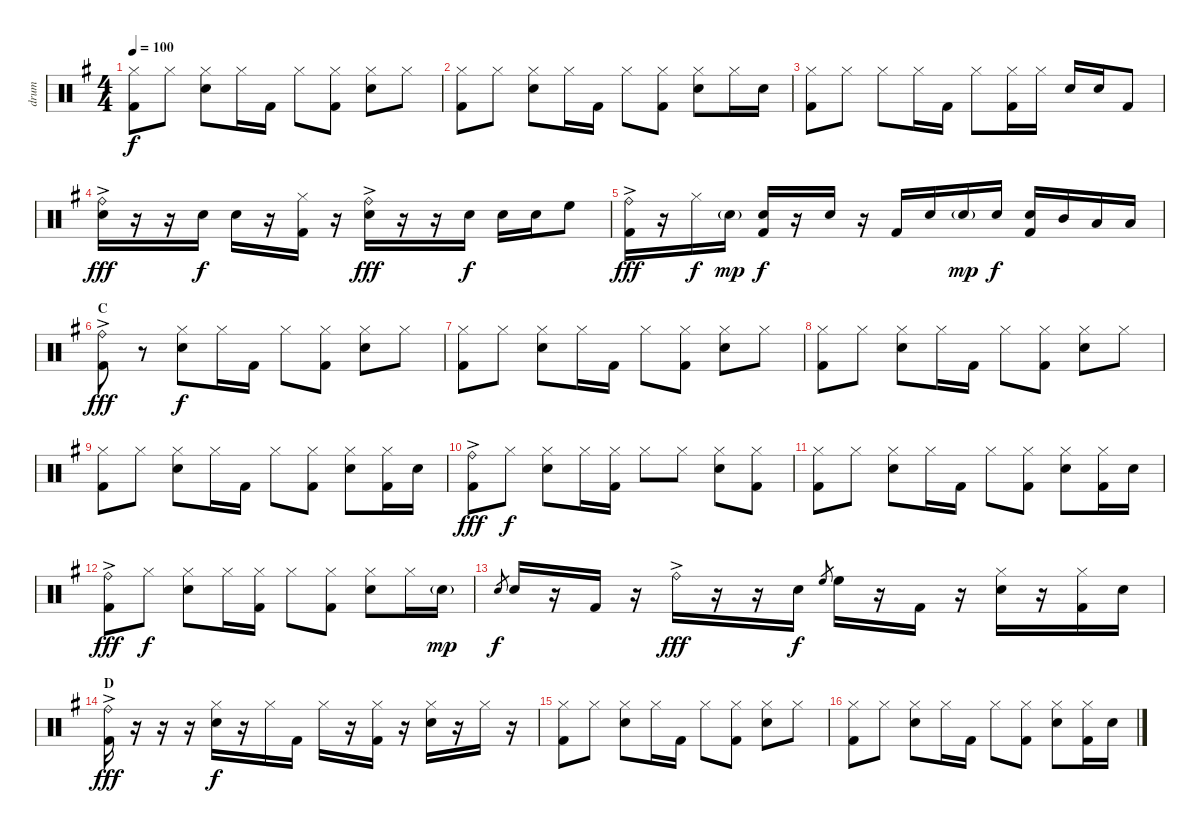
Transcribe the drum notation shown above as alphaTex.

\track ("drum" "drum") {instrument percussion}
\staff {score}
\articulation defaults
\ts (4 4)
\tempo 100
\clef neutral
\ks g
("Hi-Hat (closed)" "Kick (hit) 2").8{dy f} "Hi-Hat (closed)".8 ("Hi-Hat (closed)" "Snare (hit) 2").8 "Hi-Hat (closed)".16 "Kick (hit) 2".16 "Hi-Hat (closed)".8 ("Hi-Hat (closed)" "Kick (hit) 2").8 ("Hi-Hat (closed)" "Snare (hit) 2").8 "Hi-Hat (closed)".8 |
("Hi-Hat (closed)" "Kick (hit) 2").8 "Hi-Hat (closed)".8 ("Hi-Hat (closed)" "Snare (hit) 2").8 "Hi-Hat (closed)".16 "Kick (hit) 2".16 "Hi-Hat (closed)".8 ("Hi-Hat (closed)" "Kick (hit) 2").8 ("Hi-Hat (closed)" "Snare (hit) 2").8 "Hi-Hat (closed)".16 "Snare (hit) 2".16 |
("Hi-Hat (closed)" "Kick (hit) 2").8 "Hi-Hat (closed)".8 "Hi-Hat (closed)".8 "Hi-Hat (closed)".16 "Kick (hit) 2".16 "Hi-Hat (closed)".8 ("Hi-Hat (closed)" "Kick (hit) 2").16 "Hi-Hat (closed)".16 "Snare (hit) 2".16 "Snare (hit) 2".16 "Kick (hit) 2".8 |
("Ride (bell)"{ac} "Snare (hit) 2").16{dy fff} r.16 r.16 "Snare (hit) 2".16{dy f} "Snare (hit) 2".16 r.16 ("Hi-Hat (closed)" "Kick (hit) 2").16 r.16 ("Ride (bell)"{ac} "Snare (hit) 2").16{dy fff} r.16 r.16 "Snare (hit) 2".16{dy f} "Snare (hit) 2".16 "Snare (hit) 2".16 "High Floor Tom (hit)".8 |
("Ride (bell)"{ac} "Kick (hit) 2").16{dy fff} r.16 "Hi-Hat (closed)".16{dy f} "Snare (hit) 2"{g}.16{dy mp} ("Snare (hit) 2" "Kick (hit) 2").16{dy f} r.16 "Snare (hit) 2".16 r.16 "Kick (hit) 2".16 "Snare (hit) 2".16 "Snare (hit) 2"{g}.16{dy mp} "Snare (hit) 2".16{dy f} ("Snare (hit) 2" "Kick (hit) 2").16 "Mid Tom (hit)".16 "Low Tom (hit)".16 "Low Tom (hit)".16 |
\section ("" "C")
("Ride (bell)"{ac} "Kick (hit) 2").8{dy fff} r.8 ("Hi-Hat (closed)" "Snare (hit) 2").8{dy f} "Hi-Hat (closed)".16 "Kick (hit) 2".16 "Hi-Hat (closed)".8 ("Hi-Hat (closed)" "Kick (hit) 2").8 ("Hi-Hat (closed)" "Snare (hit) 2").8 "Hi-Hat (closed)".8 |
("Hi-Hat (closed)" "Kick (hit) 2").8 "Hi-Hat (closed)".8 ("Hi-Hat (closed)" "Snare (hit) 2").8 "Hi-Hat (closed)".16 "Kick (hit) 2".16 "Hi-Hat (closed)".8 ("Hi-Hat (closed)" "Kick (hit) 2").8 ("Hi-Hat (closed)" "Snare (hit) 2").8 "Hi-Hat (closed)".8 |
("Hi-Hat (closed)" "Kick (hit) 2").8 "Hi-Hat (closed)".8 ("Hi-Hat (closed)" "Snare (hit) 2").8 "Hi-Hat (closed)".16 "Kick (hit) 2".16 "Hi-Hat (closed)".8 ("Hi-Hat (closed)" "Kick (hit) 2").8 ("Hi-Hat (closed)" "Snare (hit) 2").8 "Hi-Hat (closed)".8 |
("Hi-Hat (closed)" "Kick (hit) 2").8 "Hi-Hat (closed)".8 ("Hi-Hat (closed)" "Snare (hit) 2").8 "Hi-Hat (closed)".16 "Kick (hit) 2".16 "Hi-Hat (closed)".8 ("Hi-Hat (closed)" "Kick (hit) 2").8 ("Hi-Hat (closed)" "Snare (hit) 2").8 ("Hi-Hat (closed)" "Kick (hit) 2").16 "Snare (hit) 2".16 |
("Ride (bell)"{ac} "Kick (hit) 2").8{dy fff} "Hi-Hat (closed)".8{dy f} ("Hi-Hat (closed)" "Snare (hit) 2").8 "Hi-Hat (closed)".16 ("Hi-Hat (closed)" "Kick (hit) 2").16 "Hi-Hat (closed)".8 "Hi-Hat (closed)".8 ("Hi-Hat (closed)" "Snare (hit) 2").8 ("Hi-Hat (closed)" "Kick (hit) 2").8 |
("Hi-Hat (closed)" "Kick (hit) 2").8 "Hi-Hat (closed)".8 ("Hi-Hat (closed)" "Snare (hit) 2").8 "Hi-Hat (closed)".16 "Kick (hit) 2".16 "Hi-Hat (closed)".8 ("Hi-Hat (closed)" "Kick (hit) 2").8 ("Hi-Hat (closed)" "Snare (hit) 2").8 ("Hi-Hat (closed)" "Kick (hit) 2").16 "Snare (hit) 2".16 |
("Ride (bell)"{ac} "Kick (hit) 2").8{dy fff} "Hi-Hat (closed)".8{dy f} ("Hi-Hat (closed)" "Snare (hit) 2").8 "Hi-Hat (closed)".16 ("Hi-Hat (closed)" "Kick (hit) 2").16 "Hi-Hat (closed)".8 ("Hi-Hat (closed)" "Kick (hit) 2").8 ("Hi-Hat (closed)" "Snare (hit) 2").8 "Hi-Hat (closed)".16 "Snare (hit) 2"{g}.16{dy mp} |
"Snare (hit) 2".8{gr dy f} "Snare (hit) 2".16 r.16 "Kick (hit) 2".16 r.16 "Ride (bell)"{ac}.16{dy fff} r.16 r.16 "Snare (hit) 2".16{dy f} "High Floor Tom (hit)".8{gr} "High Floor Tom (hit)".16 r.16 "Kick (hit) 2".16 r.16 ("Hi-Hat (closed)" "Snare (hit) 2").16 r.16 ("Hi-Hat (closed)" "Kick (hit) 2").16 "Snare (hit) 2".16 |
\section ("" "D")
("Ride (bell)"{ac} "Kick (hit) 2").16{dy fff} r.16 r.16 r.16 ("Hi-Hat (closed)" "Snare (hit) 2").16{dy f} r.16 "Hi-Hat (closed)".16 "Kick (hit) 2".16 "Hi-Hat (closed)".16 r.16 ("Hi-Hat (closed)" "Kick (hit) 2").16 r.16 ("Hi-Hat (closed)" "Snare (hit) 2").16 r.16 "Hi-Hat (closed)".16 r.16 |
("Hi-Hat (closed)" "Kick (hit) 2").8 "Hi-Hat (closed)".8 ("Hi-Hat (closed)" "Snare (hit) 2").8 "Hi-Hat (closed)".16 "Kick (hit) 2".16 "Hi-Hat (closed)".8 ("Hi-Hat (closed)" "Kick (hit) 2").8 ("Hi-Hat (closed)" "Snare (hit) 2").8 "Hi-Hat (closed)".8 |
("Hi-Hat (closed)" "Kick (hit) 2").8 "Hi-Hat (closed)".8 ("Hi-Hat (closed)" "Snare (hit) 2").8 "Hi-Hat (closed)".16 "Kick (hit) 2".16 "Hi-Hat (closed)".8 ("Hi-Hat (closed)" "Kick (hit) 2").8 ("Hi-Hat (closed)" "Snare (hit) 2").8 ("Hi-Hat (closed)" "Kick (hit) 2").16 "Snare (hit) 2".16
